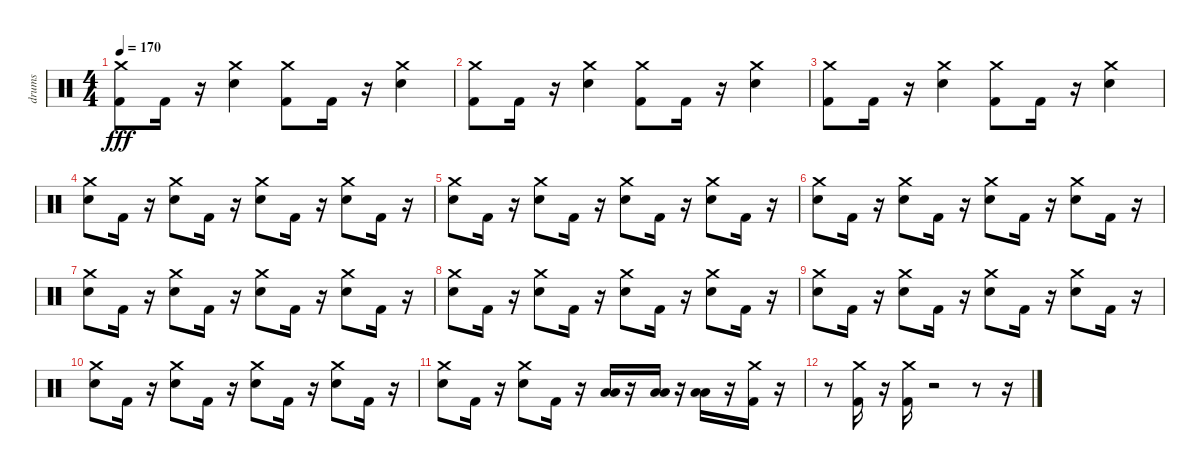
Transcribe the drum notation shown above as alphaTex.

\track ("drums" "drums") {instrument percussion}
\staff {score}
\articulation defaults
\ts (4 4)
\tempo 170
\clef neutral
\ks c
("Kick (hit) 2" "Crash medium (hit)").8{dy fff} "Kick (hit) 2".16 r.16 ("Electric Snare (hit)" "Crash medium (hit)").4 ("Kick (hit) 2" "Crash medium (hit)").8 "Kick (hit) 2".16 r.16 ("Electric Snare (hit)" "Crash medium (hit)").4 |
("Kick (hit) 2" "Crash medium (hit)").8 "Kick (hit) 2".16 r.16 ("Electric Snare (hit)" "Crash medium (hit)").4 ("Kick (hit) 2" "Crash medium (hit)").8 "Kick (hit) 2".16 r.16 ("Electric Snare (hit)" "Crash medium (hit)").4 |
("Kick (hit) 2" "Crash medium (hit)").8 "Kick (hit) 2".16 r.16 ("Electric Snare (hit)" "Crash medium (hit)").4 ("Kick (hit) 2" "Crash medium (hit)").8 "Kick (hit) 2".16 r.16 ("Electric Snare (hit)" "Crash medium (hit)").4 |
("Crash medium (hit)" "Electric Snare (hit)").8 "Kick (hit) 2".16 r.16 ("Electric Snare (hit)" "Crash medium (hit)").8 "Kick (hit) 2".16 r.16 ("Crash medium (hit)" "Electric Snare (hit)").8 "Kick (hit) 2".16 r.16 ("Electric Snare (hit)" "Crash medium (hit)").8 "Kick (hit) 2".16 r.16 |
("Crash medium (hit)" "Electric Snare (hit)").8 "Kick (hit) 2".16 r.16 ("Electric Snare (hit)" "Crash medium (hit)").8 "Kick (hit) 2".16 r.16 ("Crash medium (hit)" "Electric Snare (hit)").8 "Kick (hit) 2".16 r.16 ("Electric Snare (hit)" "Crash medium (hit)").8 "Kick (hit) 2".16 r.16 |
("Crash medium (hit)" "Electric Snare (hit)").8 "Kick (hit) 2".16 r.16 ("Electric Snare (hit)" "Crash medium (hit)").8 "Kick (hit) 2".16 r.16 ("Crash medium (hit)" "Electric Snare (hit)").8 "Kick (hit) 2".16 r.16 ("Electric Snare (hit)" "Crash medium (hit)").8 "Kick (hit) 2".16 r.16 |
("Crash medium (hit)" "Electric Snare (hit)").8 "Kick (hit) 2".16 r.16 ("Electric Snare (hit)" "Crash medium (hit)").8 "Kick (hit) 2".16 r.16 ("Crash medium (hit)" "Electric Snare (hit)").8 "Kick (hit) 2".16 r.16 ("Electric Snare (hit)" "Crash medium (hit)").8 "Kick (hit) 2".16 r.16 |
("Crash medium (hit)" "Electric Snare (hit)").8 "Kick (hit) 2".16 r.16 ("Electric Snare (hit)" "Crash medium (hit)").8 "Kick (hit) 2".16 r.16 ("Crash medium (hit)" "Electric Snare (hit)").8 "Kick (hit) 2".16 r.16 ("Electric Snare (hit)" "Crash medium (hit)").8 "Kick (hit) 2".16 r.16 |
("Crash medium (hit)" "Electric Snare (hit)").8 "Kick (hit) 2".16 r.16 ("Electric Snare (hit)" "Crash medium (hit)").8 "Kick (hit) 2".16 r.16 ("Crash medium (hit)" "Electric Snare (hit)").8 "Kick (hit) 2".16 r.16 ("Electric Snare (hit)" "Crash medium (hit)").8 "Kick (hit) 2".16 r.16 |
("Crash medium (hit)" "Electric Snare (hit)").8 "Kick (hit) 2".16 r.16 ("Electric Snare (hit)" "Crash medium (hit)").8 "Kick (hit) 2".16 r.16 ("Crash medium (hit)" "Electric Snare (hit)").8 "Kick (hit) 2".16 r.16 ("Electric Snare (hit)" "Crash medium (hit)").8 "Kick (hit) 2".16 r.16 |
("Crash medium (hit)" "Electric Snare (hit)").8 "Kick (hit) 2".16 r.16 ("Electric Snare (hit)" "Crash medium (hit)").8 "Kick (hit) 2".16 r.16 ("Low Tom (hit)" "Low Floor Tom (hit)").16 r.16 ("Low Tom (hit)" "Low Floor Tom (hit)").16 r.16 ("Low Floor Tom (hit)" "Low Tom (hit)").16 r.16 ("Kick (hit) 2" "Crash medium (hit)").16 r.16 |
r.8 ("Crash medium (hit)" "Kick (hit) 2").16 r.16 ("Kick (hit) 2" "Crash medium (hit)").16 r.2 r.8 r.16
